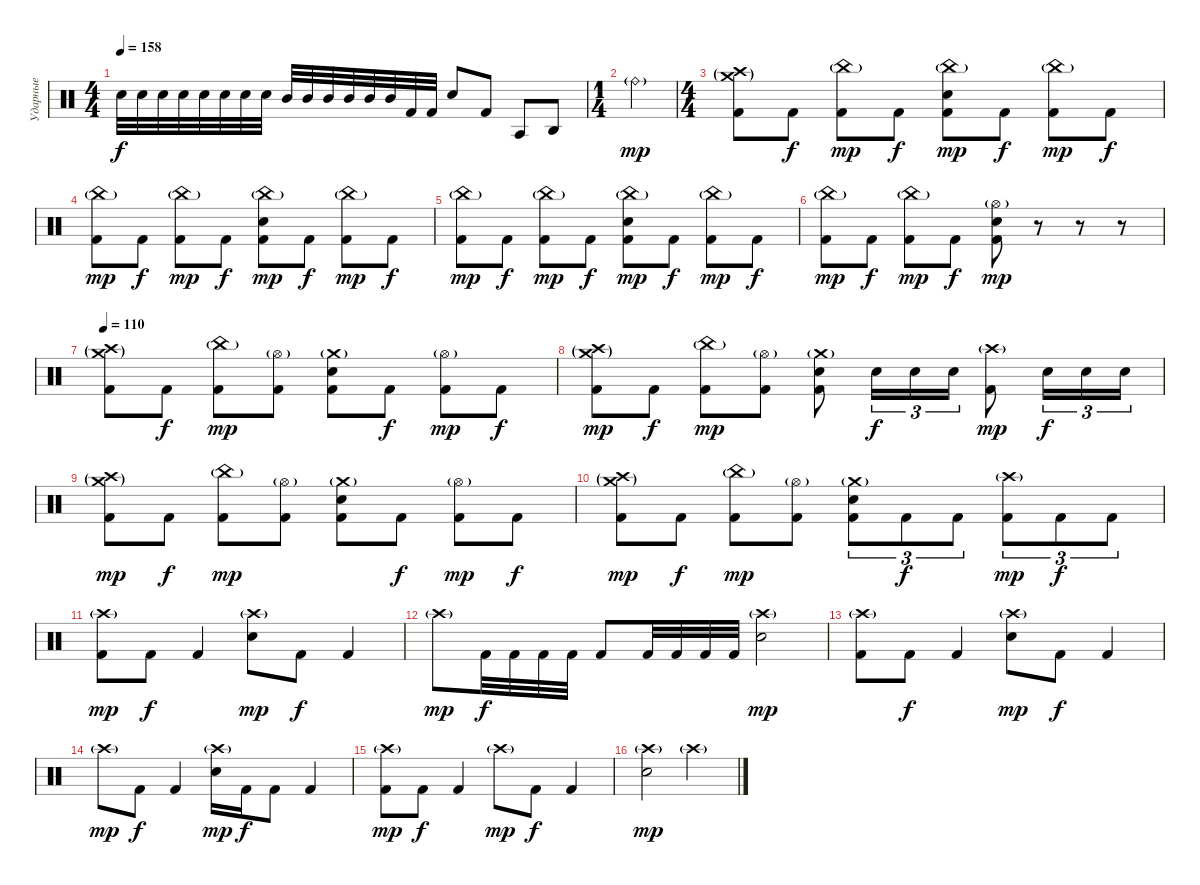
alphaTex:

\track ("Ударные" "Ударные") {instrument percussion}
\staff {score}
\articulation defaults
\ts (4 4)
\tempo 158
\clef neutral
\ks c "Electric Snare (hit)".32{dy f} "Electric Snare (hit)".32 "Electric Snare (hit)".32 "Electric Snare (hit)".32 "Electric Snare (hit)".32 "Electric Snare (hit)".32 "Electric Snare (hit)".32 "Electric Snare (hit)".32 "Mid Tom (hit)".32 "Mid Tom (hit)".32 "Mid Tom (hit)".32 "Mid Tom (hit)".32 "Mid Tom (hit)".32 "Mid Tom (hit)".32 "Kick (hit) 2".32 "Kick (hit) 2".32 "Electric Snare (hit)".8 "Kick (hit) 2".8 "Agogo tow (hit)".8 "Agogo high (hit)".8
|
\ts (1 4)
"Ride (bell)"{g}.4{dy mp} |
\ts (4 4)
("Crash high (hit)"{g} "Crash medium (hit)"{g} "Kick (hit) 2").8 "Kick (hit) 2".8{dy f} ("China (hit)"{g} "Kick (hit) 2").8{dy mp} "Kick (hit) 2".8{dy f} ("China (hit)"{g} "Electric Snare (hit)" "Kick (hit) 2").8{dy mp} "Kick (hit) 2".8{dy f} ("China (hit)"{g} "Kick (hit) 2").8{dy mp} "Kick (hit) 2".8{dy f} |
("China (hit)"{g} "Kick (hit) 2").8{dy mp} "Kick (hit) 2".8{dy f} ("China (hit)"{g} "Kick (hit) 2").8{dy mp} "Kick (hit) 2".8{dy f} ("China (hit)"{g} "Electric Snare (hit)" "Kick (hit) 2").8{dy mp} "Kick (hit) 2".8{dy f} ("China (hit)"{g} "Kick (hit) 2").8{dy mp} "Kick (hit) 2".8{dy f} |
("China (hit)"{g} "Kick (hit) 2").8{dy mp} "Kick (hit) 2".8{dy f} ("China (hit)"{g} "Kick (hit) 2").8{dy mp} "Kick (hit) 2".8{dy f} ("China (hit)"{g} "Electric Snare (hit)" "Kick (hit) 2").8{dy mp} "Kick (hit) 2".8{dy f} ("China (hit)"{g} "Kick (hit) 2").8{dy mp} "Kick (hit) 2".8{dy f} |
("China (hit)"{g} "Kick (hit) 2").8{dy mp} "Kick (hit) 2".8{dy f} ("China (hit)"{g} "Kick (hit) 2").8{dy mp} "Kick (hit) 2".8{dy f} ("Hi-Hat (open)"{g} "Electric Snare (hit)" "Kick (hit) 2").8{dy mp} r.8 r.8 r.8 |
\tempo 110
("Crash medium (hit)"{g} "Crash high (hit)"{g} "Kick (hit) 2").8 "Kick (hit) 2".8{dy f} ("China (hit)"{g} "Kick (hit) 2").8{dy mp} ("Hi-Hat (open)"{g} "Kick (hit) 2").8 ("Crash medium (hit)"{g} "Electric Snare (hit)" "Kick (hit) 2").8 "Kick (hit) 2".8{dy f} ("Hi-Hat (open)"{g} "Kick (hit) 2").8{dy mp} "Kick (hit) 2".8{dy f} |
("Crash medium (hit)"{g} "Crash high (hit)"{g} "Kick (hit) 2").8{dy mp} "Kick (hit) 2".8{dy f} ("China (hit)"{g} "Kick (hit) 2").8{dy mp} ("Hi-Hat (open)"{g} "Kick (hit) 2").8 ("Crash medium (hit)"{g} "Electric Snare (hit)" "Kick (hit) 2").8 "Electric Snare (hit)".16{tu (3 2) dy f} "Electric Snare (hit)".16{tu (3 2)} "Electric Snare (hit)".16{tu (3 2)} ("Crash high (hit)"{g} "Kick (hit) 2").8{dy mp} "Electric Snare (hit)".16{tu (3 2) dy f} "Electric Snare (hit)".16{tu (3 2)} "Electric Snare (hit)".16{tu (3 2)} |
("Crash medium (hit)"{g} "Crash high (hit)"{g} "Kick (hit) 2").8{dy mp} "Kick (hit) 2".8{dy f} ("China (hit)"{g} "Kick (hit) 2").8{dy mp} ("Hi-Hat (open)"{g} "Kick (hit) 2").8 ("Crash medium (hit)"{g} "Electric Snare (hit)" "Kick (hit) 2").8 "Kick (hit) 2".8{dy f} ("Hi-Hat (open)"{g} "Kick (hit) 2").8{dy mp} "Kick (hit) 2".8{dy f} |
("Crash medium (hit)"{g} "Crash high (hit)"{g} "Kick (hit) 2").8{dy mp} "Kick (hit) 2".8{dy f} ("China (hit)"{g} "Kick (hit) 2").8{dy mp} ("Hi-Hat (open)"{g} "Kick (hit) 2").8 ("Crash medium (hit)"{g} "Electric Snare (hit)" "Kick (hit) 2").8{tu (3 2)} "Kick (hit) 2".8{tu (3 2) dy f} "Kick (hit) 2".8{tu (3 2)} ("Crash high (hit)"{g} "Kick (hit) 2").8{tu (3 2) dy mp} "Kick (hit) 2".8{tu (3 2) dy f} "Kick (hit) 2".8{tu (3 2)} |
("Crash high (hit)"{g} "Kick (hit) 2").8{dy mp} "Kick (hit) 2".8{dy f} "Kick (hit) 2".4 ("Crash high (hit)"{g} "Electric Snare (hit)").8{dy mp} "Kick (hit) 2".8{dy f} "Kick (hit) 2".4 |
"Crash high (hit)"{g}.8{dy mp} "Kick (hit) 2".32{dy f} "Kick (hit) 2".32 "Kick (hit) 2".32 "Kick (hit) 2".32 "Kick (hit) 2".8 "Kick (hit) 2".32 "Kick (hit) 2".32 "Kick (hit) 2".32 "Kick (hit) 2".32 ("Crash high (hit)"{g} "Electric Snare (hit)").2{dy mp} |
("Crash high (hit)"{g} "Kick (hit) 2").8 "Kick (hit) 2".8{dy f} "Kick (hit) 2".4 ("Crash high (hit)"{g} "Electric Snare (hit)").8{dy mp} "Kick (hit) 2".8{dy f} "Kick (hit) 2".4 |
"Crash high (hit)"{g}.8{dy mp} "Kick (hit) 2".8{dy f} "Kick (hit) 2".4 ("Crash high (hit)"{g} "Electric Snare (hit)").16{dy mp} "Kick (hit) 2".16{dy f} "Kick (hit) 2".8 "Kick (hit) 2".4 |
("Crash high (hit)"{g} "Kick (hit) 2").8{dy mp} "Kick (hit) 2".8{dy f} "Kick (hit) 2".4 "Crash high (hit)"{g}.8{dy mp} "Kick (hit) 2".8{dy f} "Kick (hit) 2".4 |
("Crash high (hit)"{g} "Electric Snare (hit)").2{dy mp} "Crash high (hit)"{g}.2
